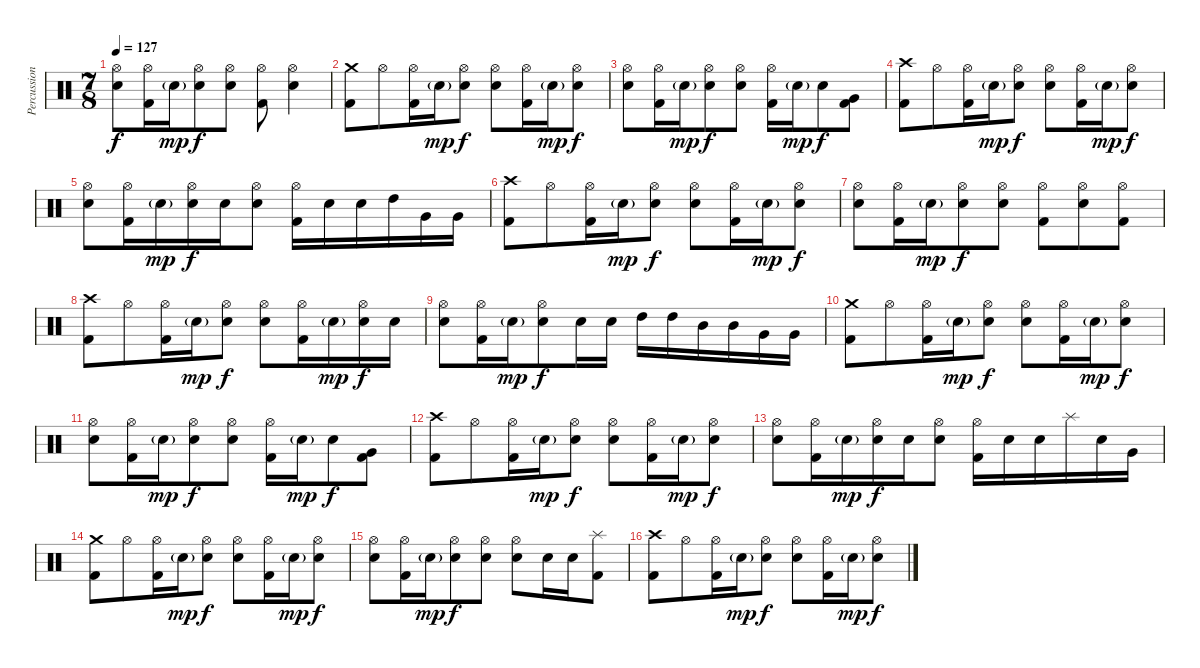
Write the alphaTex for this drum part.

\track ("Percussion" "Percussion") {instrument percussion}
\staff {score}
\articulation defaults
\ts (7 8)
\tempo 127
\clef neutral
\ks c
("Hi-Hat (open)" "Electric Snare (hit)").8{dy f} ("Hi-Hat (open)" "Kick (hit) 2").16 "Electric Snare (hit)"{g}.16{dy mp} ("Hi-Hat (open)" "Electric Snare (hit)").8{dy f} ("Hi-Hat (open)" "Electric Snare (hit)").8 ("Hi-Hat (open)" "Kick (hit) 2").8 ("Hi-Hat (open)" "Electric Snare (hit)").4 |
("Crash medium (hit)" "Kick (hit) 2").8 "Hi-Hat (open)".8 ("Hi-Hat (open)" "Kick (hit) 2").16 "Electric Snare (hit)"{g}.16{dy mp} ("Hi-Hat (open)" "Electric Snare (hit)").8{dy f} ("Hi-Hat (open)" "Electric Snare (hit)").8 ("Hi-Hat (open)" "Kick (hit) 2").16 "Electric Snare (hit)"{g}.16{dy mp} ("Hi-Hat (open)" "Electric Snare (hit)").8{dy f} |
("Hi-Hat (open)" "Electric Snare (hit)").8 ("Hi-Hat (open)" "Kick (hit) 2").16 "Electric Snare (hit)"{g}.16{dy mp} ("Hi-Hat (open)" "Electric Snare (hit)").8{dy f} ("Hi-Hat (open)" "Electric Snare (hit)").8 ("Hi-Hat (open)" "Kick (hit) 2").16 "Electric Snare (hit)"{g}.16{dy mp} "Electric Snare (hit)".8{dy f} ("Very Low Tom (hit)" "Kick (hit) 2").8 |
("Crash high (hit)" "Kick (hit) 2").8 "Hi-Hat (open)".8 ("Hi-Hat (open)" "Kick (hit) 2").16 "Electric Snare (hit)"{g}.16{dy mp} ("Hi-Hat (open)" "Electric Snare (hit)").8{dy f} ("Hi-Hat (open)" "Electric Snare (hit)").8 ("Hi-Hat (open)" "Kick (hit) 2").16 "Electric Snare (hit)"{g}.16{dy mp} ("Hi-Hat (open)" "Electric Snare (hit)").8{dy f} |
("Hi-Hat (open)" "Electric Snare (hit)").8 ("Hi-Hat (open)" "Kick (hit) 2").16 "Electric Snare (hit)"{g}.16{dy mp} ("Hi-Hat (open)" "Electric Snare (hit)").16{dy f} "Electric Snare (hit)".16 ("Hi-Hat (open)" "Electric Snare (hit)").8 ("Hi-Hat (open)" "Kick (hit) 2").16 "Electric Snare (hit)".16 "Electric Snare (hit)".16 "High Tom (hit)".16 "Very Low Tom (hit)".16 "Very Low Tom (hit)".16 |
("Crash high (hit)" "Kick (hit) 2").8 "Hi-Hat (open)".8 ("Hi-Hat (open)" "Kick (hit) 2").16 "Electric Snare (hit)"{g}.16{dy mp} ("Hi-Hat (open)" "Electric Snare (hit)").8{dy f} ("Hi-Hat (open)" "Electric Snare (hit)").8 ("Hi-Hat (open)" "Kick (hit) 2").16 "Electric Snare (hit)"{g}.16{dy mp} ("Hi-Hat (open)" "Electric Snare (hit)").8{dy f} |
("Hi-Hat (open)" "Electric Snare (hit)").8 ("Hi-Hat (open)" "Kick (hit) 2").16 "Electric Snare (hit)"{g}.16{dy mp} ("Hi-Hat (open)" "Electric Snare (hit)").8{dy f} ("Hi-Hat (open)" "Electric Snare (hit)").8 ("Hi-Hat (open)" "Kick (hit) 2").8 ("Hi-Hat (open)" "Electric Snare (hit)").8 ("Hi-Hat (open)" "Kick (hit) 2").8 |
("Crash high (hit)" "Kick (hit) 2").8 "Hi-Hat (open)".8 ("Hi-Hat (open)" "Kick (hit) 2").16 "Electric Snare (hit)"{g}.16{dy mp} ("Hi-Hat (open)" "Electric Snare (hit)").8{dy f} ("Hi-Hat (open)" "Electric Snare (hit)").8 ("Hi-Hat (open)" "Kick (hit) 2").16 "Electric Snare (hit)"{g}.16{dy mp} ("Hi-Hat (open)" "Electric Snare (hit)").16{dy f} "Electric Snare (hit)".16 |
("Hi-Hat (open)" "Electric Snare (hit)").8 ("Hi-Hat (open)" "Kick (hit) 2").16 "Electric Snare (hit)"{g}.16{dy mp} ("Hi-Hat (open)" "Electric Snare (hit)").8{dy f} "Electric Snare (hit)".16 "Electric Snare (hit)".16 "High Tom (hit)".16 "High Tom (hit)".16 "Mid Tom (hit)".16 "Mid Tom (hit)".16 "Very Low Tom (hit)".16 "Very Low Tom (hit)".16 |
("Crash medium (hit)" "Kick (hit) 2").8 "Hi-Hat (open)".8 ("Hi-Hat (open)" "Kick (hit) 2").16 "Electric Snare (hit)"{g}.16{dy mp} ("Hi-Hat (open)" "Electric Snare (hit)").8{dy f} ("Hi-Hat (open)" "Electric Snare (hit)").8 ("Hi-Hat (open)" "Kick (hit) 2").16 "Electric Snare (hit)"{g}.16{dy mp} ("Hi-Hat (open)" "Electric Snare (hit)").8{dy f} |
("Hi-Hat (open)" "Electric Snare (hit)").8 ("Hi-Hat (open)" "Kick (hit) 2").16 "Electric Snare (hit)"{g}.16{dy mp} ("Hi-Hat (open)" "Electric Snare (hit)").8{dy f} ("Hi-Hat (open)" "Electric Snare (hit)").8 ("Hi-Hat (open)" "Kick (hit) 2").16 "Electric Snare (hit)"{g}.16{dy mp} "Electric Snare (hit)".8{dy f} ("Very Low Tom (hit)" "Kick (hit) 2").8 |
("Crash high (hit)" "Kick (hit) 2").8 "Hi-Hat (open)".8 ("Hi-Hat (open)" "Kick (hit) 2").16 "Electric Snare (hit)"{g}.16{dy mp} ("Hi-Hat (open)" "Electric Snare (hit)").8{dy f} ("Hi-Hat (open)" "Electric Snare (hit)").8 ("Hi-Hat (open)" "Kick (hit) 2").16 "Electric Snare (hit)"{g}.16{dy mp} ("Hi-Hat (open)" "Electric Snare (hit)").8{dy f} |
("Hi-Hat (open)" "Electric Snare (hit)").8 ("Hi-Hat (open)" "Kick (hit) 2").16 "Electric Snare (hit)"{g}.16{dy mp} ("Hi-Hat (open)" "Electric Snare (hit)").16{dy f} "Electric Snare (hit)".16 ("Hi-Hat (open)" "Electric Snare (hit)").8 ("Hi-Hat (open)" "Kick (hit) 2").16 "Electric Snare (hit)".16 "Electric Snare (hit)".16 "Splash (hit)".16 "Electric Snare (hit)".16 "Very Low Tom (hit)".16 |
("Crash medium (hit)" "Kick (hit) 2").8 "Hi-Hat (open)".8 ("Hi-Hat (open)" "Kick (hit) 2").16 "Electric Snare (hit)"{g}.16{dy mp} ("Hi-Hat (open)" "Electric Snare (hit)").8{dy f} ("Hi-Hat (open)" "Electric Snare (hit)").8 ("Hi-Hat (open)" "Kick (hit) 2").16 "Electric Snare (hit)"{g}.16{dy mp} ("Hi-Hat (open)" "Electric Snare (hit)").8{dy f} |
("Hi-Hat (open)" "Electric Snare (hit)").8 ("Hi-Hat (open)" "Kick (hit) 2").16 "Electric Snare (hit)"{g}.16{dy mp} ("Hi-Hat (open)" "Electric Snare (hit)").8{dy f} ("Hi-Hat (open)" "Electric Snare (hit)").8 ("Hi-Hat (open)" "Electric Snare (hit)").8 "Electric Snare (hit)".16 "Electric Snare (hit)".16 ("Splash (hit)" "Kick (hit) 2").8 |
("Crash high (hit)" "Kick (hit) 2").8 "Hi-Hat (open)".8 ("Hi-Hat (open)" "Kick (hit) 2").16 "Electric Snare (hit)"{g}.16{dy mp} ("Hi-Hat (open)" "Electric Snare (hit)").8{dy f} ("Hi-Hat (open)" "Electric Snare (hit)").8 ("Hi-Hat (open)" "Kick (hit) 2").16 "Electric Snare (hit)"{g}.16{dy mp} ("Hi-Hat (open)" "Electric Snare (hit)").8{dy f}
